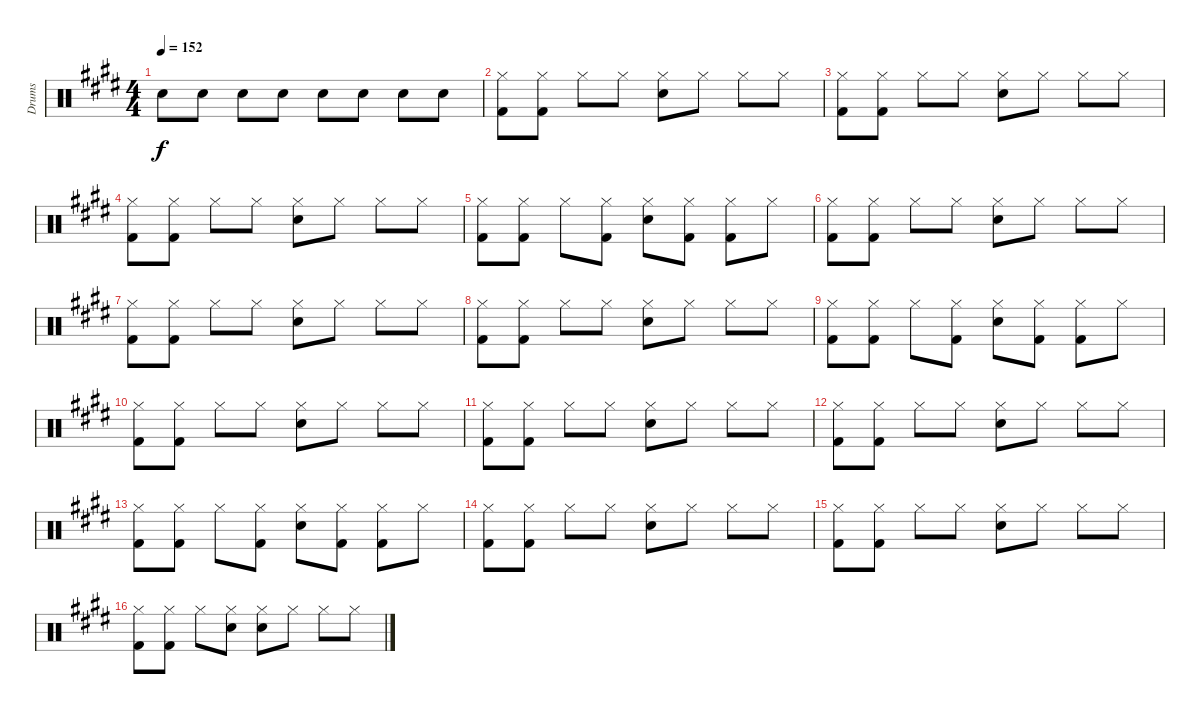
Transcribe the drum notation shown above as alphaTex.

\track ("Drums" "Drums") {instrument percussion}
\staff {score}
\articulation defaults
\ts (4 4)
\tempo 152
\clef neutral
\ks c#minor "Snare (hit) 2".8{dy f} "Snare (hit) 2".8 "Snare (hit) 2".8 "Snare (hit) 2".8 "Snare (hit) 2".8 "Snare (hit) 2".8 "Snare (hit) 2".8 "Snare (hit) 2".8
|
("Kick (hit) 2" "Hi-Hat (closed)").8 ("Hi-Hat (closed)" "Kick (hit) 2").8 "Hi-Hat (closed)".8 "Hi-Hat (closed)".8 ("Snare (hit) 2" "Hi-Hat (closed)").8 "Hi-Hat (closed)".8 "Hi-Hat (closed)".8 "Hi-Hat (closed)".8 |
("Kick (hit) 2" "Hi-Hat (closed)").8 ("Hi-Hat (closed)" "Kick (hit) 2").8 "Hi-Hat (closed)".8 "Hi-Hat (closed)".8 ("Snare (hit) 2" "Hi-Hat (closed)").8 "Hi-Hat (closed)".8 "Hi-Hat (closed)".8 "Hi-Hat (closed)".8 |
("Kick (hit) 2" "Hi-Hat (closed)").8 ("Hi-Hat (closed)" "Kick (hit) 2").8 "Hi-Hat (closed)".8 "Hi-Hat (closed)".8 ("Snare (hit) 2" "Hi-Hat (closed)").8 "Hi-Hat (closed)".8 "Hi-Hat (closed)".8 "Hi-Hat (closed)".8 |
("Kick (hit) 2" "Hi-Hat (closed)").8 ("Hi-Hat (closed)" "Kick (hit) 2").8 "Hi-Hat (closed)".8 ("Kick (hit) 2" "Hi-Hat (closed)").8 ("Snare (hit) 2" "Hi-Hat (closed)").8 ("Kick (hit) 2" "Hi-Hat (closed)").8 ("Kick (hit) 2" "Hi-Hat (closed)").8 "Hi-Hat (closed)".8 |
("Kick (hit) 2" "Hi-Hat (closed)").8 ("Hi-Hat (closed)" "Kick (hit) 2").8 "Hi-Hat (closed)".8 "Hi-Hat (closed)".8 ("Snare (hit) 2" "Hi-Hat (closed)").8 "Hi-Hat (closed)".8 "Hi-Hat (closed)".8 "Hi-Hat (closed)".8 |
("Kick (hit) 2" "Hi-Hat (closed)").8 ("Hi-Hat (closed)" "Kick (hit) 2").8 "Hi-Hat (closed)".8 "Hi-Hat (closed)".8 ("Snare (hit) 2" "Hi-Hat (closed)").8 "Hi-Hat (closed)".8 "Hi-Hat (closed)".8 "Hi-Hat (closed)".8 |
("Kick (hit) 2" "Hi-Hat (closed)").8 ("Hi-Hat (closed)" "Kick (hit) 2").8 "Hi-Hat (closed)".8 "Hi-Hat (closed)".8 ("Snare (hit) 2" "Hi-Hat (closed)").8 "Hi-Hat (closed)".8 "Hi-Hat (closed)".8 "Hi-Hat (closed)".8 |
("Kick (hit) 2" "Hi-Hat (closed)").8 ("Hi-Hat (closed)" "Kick (hit) 2").8 "Hi-Hat (closed)".8 ("Kick (hit) 2" "Hi-Hat (closed)").8 ("Snare (hit) 2" "Hi-Hat (closed)").8 ("Kick (hit) 2" "Hi-Hat (closed)").8 ("Kick (hit) 2" "Hi-Hat (closed)").8 "Hi-Hat (closed)".8 |
("Kick (hit) 2" "Hi-Hat (closed)").8 ("Hi-Hat (closed)" "Kick (hit) 2").8 "Hi-Hat (closed)".8 "Hi-Hat (closed)".8 ("Snare (hit) 2" "Hi-Hat (closed)").8 "Hi-Hat (closed)".8 "Hi-Hat (closed)".8 "Hi-Hat (closed)".8 |
("Kick (hit) 2" "Hi-Hat (closed)").8 ("Hi-Hat (closed)" "Kick (hit) 2").8 "Hi-Hat (closed)".8 "Hi-Hat (closed)".8 ("Snare (hit) 2" "Hi-Hat (closed)").8 "Hi-Hat (closed)".8 "Hi-Hat (closed)".8 "Hi-Hat (closed)".8 |
("Kick (hit) 2" "Hi-Hat (closed)").8 ("Hi-Hat (closed)" "Kick (hit) 2").8 "Hi-Hat (closed)".8 "Hi-Hat (closed)".8 ("Snare (hit) 2" "Hi-Hat (closed)").8 "Hi-Hat (closed)".8 "Hi-Hat (closed)".8 "Hi-Hat (closed)".8 |
("Kick (hit) 2" "Hi-Hat (closed)").8 ("Hi-Hat (closed)" "Kick (hit) 2").8 "Hi-Hat (closed)".8 ("Kick (hit) 2" "Hi-Hat (closed)").8 ("Snare (hit) 2" "Hi-Hat (closed)").8 ("Kick (hit) 2" "Hi-Hat (closed)").8 ("Kick (hit) 2" "Hi-Hat (closed)").8 "Hi-Hat (closed)".8 |
("Kick (hit) 2" "Hi-Hat (closed)").8 ("Hi-Hat (closed)" "Kick (hit) 2").8 "Hi-Hat (closed)".8 "Hi-Hat (closed)".8 ("Snare (hit) 2" "Hi-Hat (closed)").8 "Hi-Hat (closed)".8 "Hi-Hat (closed)".8 "Hi-Hat (closed)".8 |
("Kick (hit) 2" "Hi-Hat (closed)").8 ("Hi-Hat (closed)" "Kick (hit) 2").8 "Hi-Hat (closed)".8 "Hi-Hat (closed)".8 ("Snare (hit) 2" "Hi-Hat (closed)").8 "Hi-Hat (closed)".8 "Hi-Hat (closed)".8 "Hi-Hat (closed)".8 |
("Kick (hit) 2" "Hi-Hat (closed)").8 ("Hi-Hat (closed)" "Kick (hit) 2").8 "Hi-Hat (closed)".8 ("Snare (hit) 2" "Hi-Hat (closed)").8 ("Snare (hit) 2" "Hi-Hat (closed)").8 "Hi-Hat (closed)".8 "Hi-Hat (closed)".8 "Hi-Hat (closed)".8
